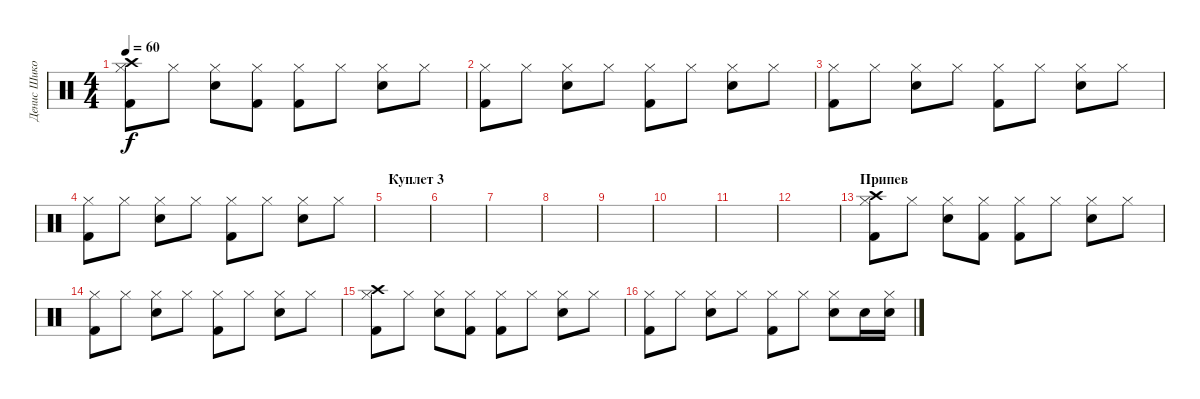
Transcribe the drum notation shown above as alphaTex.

\track ("Денис Шиков" "Денис Шико") {instrument percussion}
\staff {score}
\articulation defaults
\ts (4 4)
\tempo 60
\clef neutral
\ks c
("Crash high (hit)" "Hi-Hat (closed)" "Kick (hit) 2").8{dy f} "Hi-Hat (closed)".8 ("Hi-Hat (closed)" "Snare (hit) 2").8 ("Hi-Hat (closed)" "Kick (hit) 2").8 ("Hi-Hat (closed)" "Kick (hit) 2").8 "Hi-Hat (closed)".8 ("Hi-Hat (closed)" "Snare (hit) 2").8 "Hi-Hat (closed)".8 |
("Hi-Hat (closed)" "Kick (hit) 2").8 "Hi-Hat (closed)".8 ("Hi-Hat (closed)" "Snare (hit) 2").8 "Hi-Hat (closed)".8 ("Hi-Hat (closed)" "Kick (hit) 2").8 "Hi-Hat (closed)".8 ("Hi-Hat (closed)" "Snare (hit) 2").8 "Hi-Hat (closed)".8 |
("Hi-Hat (closed)" "Kick (hit) 2").8 "Hi-Hat (closed)".8 ("Hi-Hat (closed)" "Snare (hit) 2").8 "Hi-Hat (closed)".8 ("Hi-Hat (closed)" "Kick (hit) 2").8 "Hi-Hat (closed)".8 ("Hi-Hat (closed)" "Snare (hit) 2").8 "Hi-Hat (closed)".8 |
("Hi-Hat (closed)" "Kick (hit) 2").8 "Hi-Hat (closed)".8 ("Hi-Hat (closed)" "Snare (hit) 2").8 "Hi-Hat (closed)".8 ("Hi-Hat (closed)" "Kick (hit) 2").8 "Hi-Hat (closed)".8 ("Hi-Hat (closed)" "Snare (hit) 2").8 "Hi-Hat (closed)".8 |
\section ("" "Куплет 3")
|
|
|
|
|
|
|
|
\section ("" "Припев")
("Hi-Hat (closed)" "Crash high (hit)" "Kick (hit) 2").8 "Hi-Hat (closed)".8 ("Hi-Hat (closed)" "Snare (hit) 2").8 ("Hi-Hat (closed)" "Kick (hit) 2").8 ("Hi-Hat (closed)" "Kick (hit) 2").8 "Hi-Hat (closed)".8 ("Hi-Hat (closed)" "Snare (hit) 2").8 "Hi-Hat (closed)".8 |
("Hi-Hat (closed)" "Kick (hit) 2").8 "Hi-Hat (closed)".8 ("Hi-Hat (closed)" "Snare (hit) 2").8 "Hi-Hat (closed)".8 ("Hi-Hat (closed)" "Kick (hit) 2").8 "Hi-Hat (closed)".8 ("Hi-Hat (closed)" "Snare (hit) 2").8 "Hi-Hat (closed)".8 |
("Hi-Hat (closed)" "Crash high (hit)" "Kick (hit) 2").8 "Hi-Hat (closed)".8 ("Hi-Hat (closed)" "Snare (hit) 2").8 ("Hi-Hat (closed)" "Kick (hit) 2").8 ("Hi-Hat (closed)" "Kick (hit) 2").8 "Hi-Hat (closed)".8 ("Hi-Hat (closed)" "Snare (hit) 2").8 "Hi-Hat (closed)".8 |
("Hi-Hat (closed)" "Kick (hit) 2").8 "Hi-Hat (closed)".8 ("Hi-Hat (closed)" "Snare (hit) 2").8 "Hi-Hat (closed)".8 ("Hi-Hat (closed)" "Kick (hit) 2").8 "Hi-Hat (closed)".8 ("Hi-Hat (closed)" "Snare (hit) 2").8 "Snare (hit) 2".16 ("Hi-Hat (closed)" "Snare (hit) 2").16
